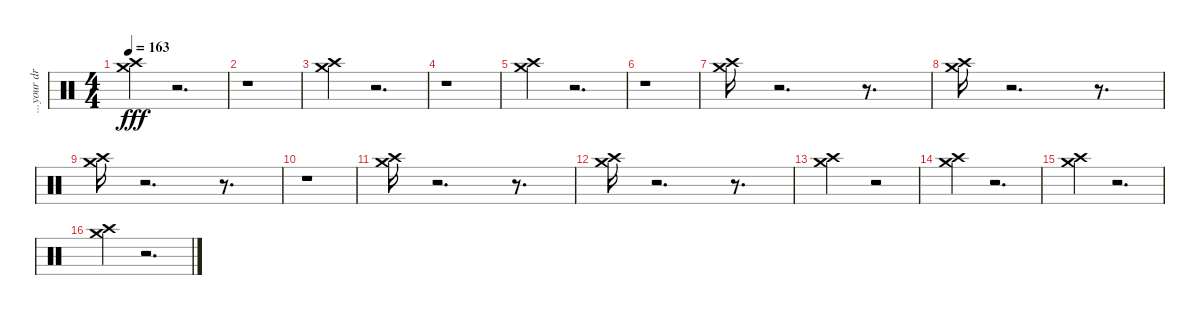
\track ("...your drums (read: cymbals)..." "...your dr") {instrument percussion}
\staff {score}
\articulation defaults
\ts (4 4)
\tempo 163
\clef neutral
\ks c
("Crash high (hit)" "Crash medium (hit)").4{dy fff} r.2{d} |
r.1 |
("Crash high (hit)" "Crash medium (hit)").4 r.2{d} |
r.1 |
("Crash high (hit)" "Crash medium (hit)").4 r.2{d} |
r.1 |
("Crash high (hit)" "Crash medium (hit)").16 r.2{d} r.8{d} |
("Crash high (hit)" "Crash medium (hit)").16 r.2{d} r.8{d} |
("Crash high (hit)" "Crash medium (hit)").16 r.2{d} r.8{d} |
r.1 |
("Crash high (hit)" "Crash medium (hit)").16 r.2{d} r.8{d} |
("Crash high (hit)" "Crash medium (hit)").16 r.2{d} r.8{d} |
("Crash high (hit)" "Crash medium (hit)").2 r.2 |
("Crash high (hit)" "Crash medium (hit)").4 r.2{d} |
("Crash high (hit)" "Crash medium (hit)").4 r.2{d} |
("Crash high (hit)" "Crash medium (hit)").4 r.2{d}
